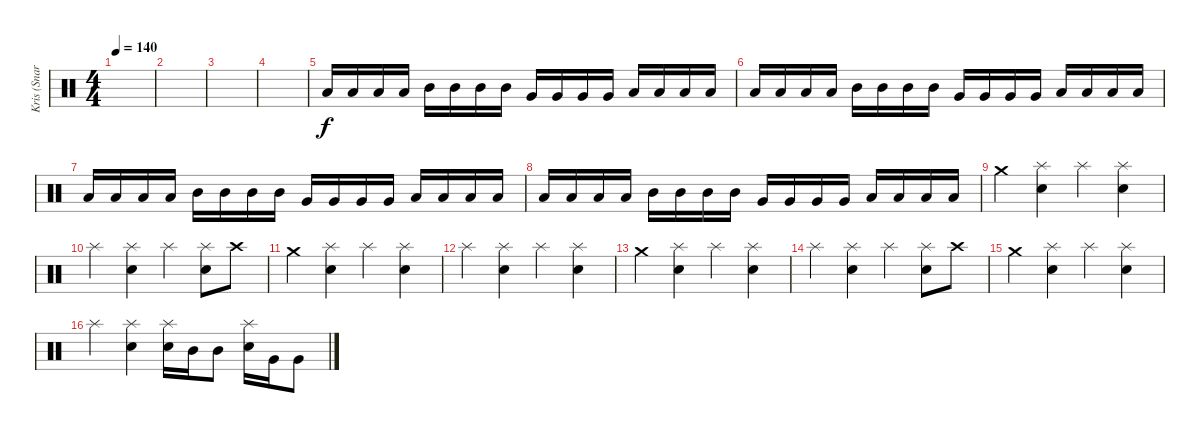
\track ("Kris (Snares & Toms)" "Kris (Snar") {instrument percussion}
\staff {score}
\articulation defaults
\ts (4 4)
\tempo 140
\clef neutral
\ks c
|
|
|
|
"Low Floor Tom (hit)".16 "Low Floor Tom (hit)".16 "Low Floor Tom (hit)".16 "Low Floor Tom (hit)".16 "Mid Tom (hit)".16 "Mid Tom (hit)".16 "Mid Tom (hit)".16 "Mid Tom (hit)".16 "Very Low Tom (hit)".16 "Very Low Tom (hit)".16 "Very Low Tom (hit)".16 "Very Low Tom (hit)".16 "Low Floor Tom (hit)".16 "Low Floor Tom (hit)".16 "Low Floor Tom (hit)".16 "Low Floor Tom (hit)".16 |
"Low Floor Tom (hit)".16 "Low Floor Tom (hit)".16 "Low Floor Tom (hit)".16 "Low Floor Tom (hit)".16 "Mid Tom (hit)".16 "Mid Tom (hit)".16 "Mid Tom (hit)".16 "Mid Tom (hit)".16 "Very Low Tom (hit)".16 "Very Low Tom (hit)".16 "Very Low Tom (hit)".16 "Very Low Tom (hit)".16 "Low Floor Tom (hit)".16 "Low Floor Tom (hit)".16 "Low Floor Tom (hit)".16 "Low Floor Tom (hit)".16 |
"Low Floor Tom (hit)".16 "Low Floor Tom (hit)".16 "Low Floor Tom (hit)".16 "Low Floor Tom (hit)".16 "Mid Tom (hit)".16 "Mid Tom (hit)".16 "Mid Tom (hit)".16 "Mid Tom (hit)".16 "Very Low Tom (hit)".16 "Very Low Tom (hit)".16 "Very Low Tom (hit)".16 "Very Low Tom (hit)".16 "Low Floor Tom (hit)".16 "Low Floor Tom (hit)".16 "Low Floor Tom (hit)".16 "Low Floor Tom (hit)".16 |
"Low Floor Tom (hit)".16 "Low Floor Tom (hit)".16 "Low Floor Tom (hit)".16 "Low Floor Tom (hit)".16 "Mid Tom (hit)".16 "Mid Tom (hit)".16 "Mid Tom (hit)".16 "Mid Tom (hit)".16 "Very Low Tom (hit)".16 "Very Low Tom (hit)".16 "Very Low Tom (hit)".16 "Very Low Tom (hit)".16 "Low Floor Tom (hit)".16 "Low Floor Tom (hit)".16 "Low Floor Tom (hit)".16 "Low Floor Tom (hit)".16 |
"Crash medium (hit)".4 ("Splash (hit)" "Electric Snare (hit)").4 "Splash (hit)".4 ("Splash (hit)" "Electric Snare (hit)").4 |
"Splash (hit)".4 ("Splash (hit)" "Electric Snare (hit)").4 "Splash (hit)".4 ("Splash (hit)" "Electric Snare (hit)").8 "Crash high (hit)".8 |
"Crash medium (hit)".4 ("Splash (hit)" "Electric Snare (hit)").4 "Splash (hit)".4 ("Splash (hit)" "Electric Snare (hit)").4 |
"Splash (hit)".4 ("Splash (hit)" "Electric Snare (hit)").4 "Splash (hit)".4 ("Splash (hit)" "Electric Snare (hit)").4 |
"Crash medium (hit)".4 ("Splash (hit)" "Electric Snare (hit)").4 "Splash (hit)".4 ("Splash (hit)" "Electric Snare (hit)").4 |
"Splash (hit)".4 ("Splash (hit)" "Electric Snare (hit)").4 "Splash (hit)".4 ("Splash (hit)" "Electric Snare (hit)").8 "Crash high (hit)".8 |
"Crash medium (hit)".4 ("Splash (hit)" "Electric Snare (hit)").4 "Splash (hit)".4 ("Splash (hit)" "Electric Snare (hit)").4 |
"Splash (hit)".4 ("Splash (hit)" "Electric Snare (hit)").4 ("Splash (hit)" "Electric Snare (hit)").16 "Mid Tom (hit)".16 "Mid Tom (hit)".8 ("Splash (hit)" "Electric Snare (hit)").16 "Very Low Tom (hit)".16 "Very Low Tom (hit)".8
